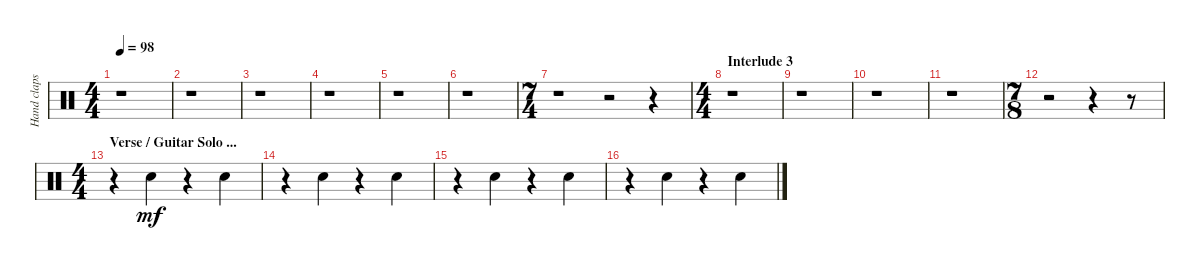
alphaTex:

\track ("Hand claps" "Hand claps") {instrument percussion}
\staff {score}
\articulation defaults
\ts (4 4)
\tempo 98
\clef neutral
\ks c
r.1{dy mf} |
r.1 |
r.1 |
r.1 |
r.1 |
r.1 |
\ts (7 4)
r.1 r.2 r.4 |
\ts (4 4)
\section ("" "Interlude 3")
r.1 |
r.1 |
r.1 |
r.1 |
\ts (7 8)
r.2 r.4 r.8 |
\ts (4 4)
\section ("" "Verse / Guitar Solo ...")
r.4 "Hand Clap (hit)".4 r.4 "Hand Clap (hit)".4 |
r.4 "Hand Clap (hit)".4 r.4 "Hand Clap (hit)".4 |
r.4 "Hand Clap (hit)".4 r.4 "Hand Clap (hit)".4 |
r.4 "Hand Clap (hit)".4 r.4 "Hand Clap (hit)".4
